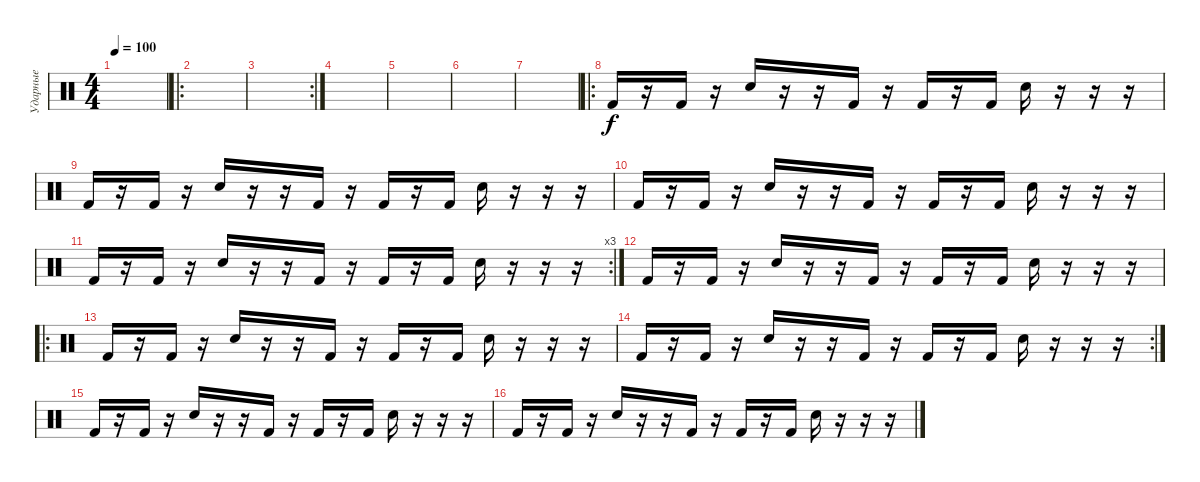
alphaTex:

\track ("Ударные" "Ударные") {instrument percussion}
\staff {score}
\articulation defaults
\ts (4 4)
\tempo 100
\clef neutral
\ks c
|
\ro
|
\rc 2
|
|
|
|
|
\ro "Kick (hit) 2".16
r.16 "Kick (hit) 2".16 r.16 "Electric Snare (hit)".16 r.16 r.16 "Kick (hit) 2".16 r.16 "Kick (hit) 2".16 r.16 "Kick (hit) 2".16 "Electric Snare (hit)".16 r.16 r.16 r.16 |
"Kick (hit) 2".16 r.16 "Kick (hit) 2".16 r.16 "Electric Snare (hit)".16 r.16 r.16 "Kick (hit) 2".16 r.16 "Kick (hit) 2".16 r.16 "Kick (hit) 2".16 "Electric Snare (hit)".16 r.16 r.16 r.16 |
"Kick (hit) 2".16 r.16 "Kick (hit) 2".16 r.16 "Electric Snare (hit)".16 r.16 r.16 "Kick (hit) 2".16 r.16 "Kick (hit) 2".16 r.16 "Kick (hit) 2".16 "Electric Snare (hit)".16 r.16 r.16 r.16 |
\rc 3 "Kick (hit) 2".16
r.16 "Kick (hit) 2".16 r.16 "Electric Snare (hit)".16 r.16 r.16 "Kick (hit) 2".16 r.16 "Kick (hit) 2".16 r.16 "Kick (hit) 2".16 "Electric Snare (hit)".16 r.16 r.16 r.16 |
"Kick (hit) 2".16 r.16 "Kick (hit) 2".16 r.16 "Electric Snare (hit)".16 r.16 r.16 "Kick (hit) 2".16 r.16 "Kick (hit) 2".16 r.16 "Kick (hit) 2".16 "Electric Snare (hit)".16 r.16 r.16 r.16 |
\ro "Kick (hit) 2".16
r.16 "Kick (hit) 2".16 r.16 "Electric Snare (hit)".16 r.16 r.16 "Kick (hit) 2".16 r.16 "Kick (hit) 2".16 r.16 "Kick (hit) 2".16 "Electric Snare (hit)".16 r.16 r.16 r.16 |
\rc 2 "Kick (hit) 2".16
r.16 "Kick (hit) 2".16 r.16 "Electric Snare (hit)".16 r.16 r.16 "Kick (hit) 2".16 r.16 "Kick (hit) 2".16 r.16 "Kick (hit) 2".16 "Electric Snare (hit)".16 r.16 r.16 r.16 |
"Kick (hit) 2".16 r.16 "Kick (hit) 2".16 r.16 "Electric Snare (hit)".16 r.16 r.16 "Kick (hit) 2".16 r.16 "Kick (hit) 2".16 r.16 "Kick (hit) 2".16 "Electric Snare (hit)".16 r.16 r.16 r.16 |
"Kick (hit) 2".16 r.16 "Kick (hit) 2".16 r.16 "Electric Snare (hit)".16 r.16 r.16 "Kick (hit) 2".16 r.16 "Kick (hit) 2".16 r.16 "Kick (hit) 2".16 "Electric Snare (hit)".16 r.16 r.16 r.16
